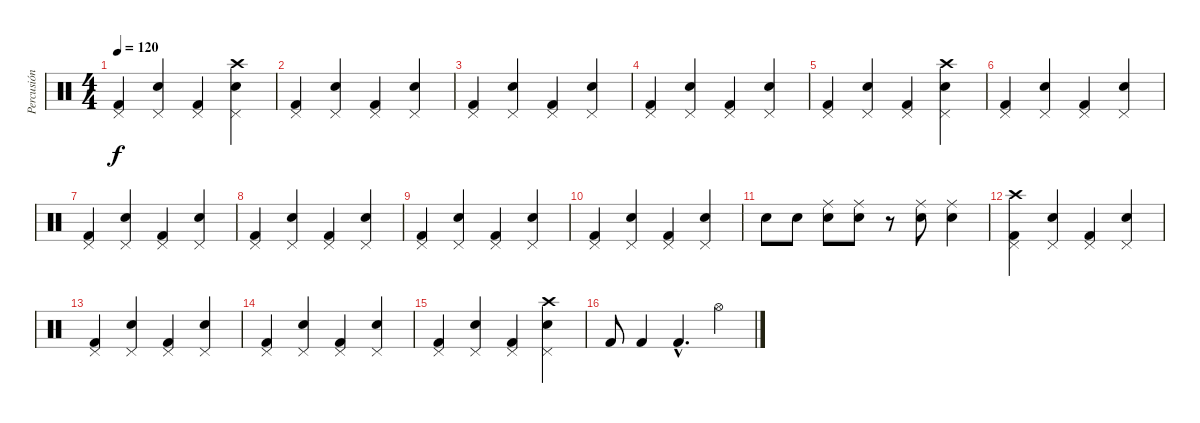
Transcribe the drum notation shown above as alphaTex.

\track ("Percusión" "Percusión") {instrument percussion}
\staff {score}
\articulation defaults
\ts (4 4)
\tempo 120
\clef neutral
\ks c
("Pedal Hi-Hat (hit)" "Kick (hit) 2").4{dy f} ("Pedal Hi-Hat (hit)" "Electric Snare (hit)").4 ("Pedal Hi-Hat (hit)" "Kick (hit) 2").4 ("Crash high (hit)" "Pedal Hi-Hat (hit)" "Electric Snare (hit)").4 |
("Pedal Hi-Hat (hit)" "Kick (hit) 2").4 ("Pedal Hi-Hat (hit)" "Electric Snare (hit)").4 ("Pedal Hi-Hat (hit)" "Kick (hit) 2").4 ("Pedal Hi-Hat (hit)" "Electric Snare (hit)").4 |
("Pedal Hi-Hat (hit)" "Kick (hit) 2").4 ("Pedal Hi-Hat (hit)" "Electric Snare (hit)").4 ("Pedal Hi-Hat (hit)" "Kick (hit) 2").4 ("Pedal Hi-Hat (hit)" "Electric Snare (hit)").4 |
("Pedal Hi-Hat (hit)" "Kick (hit) 2").4 ("Pedal Hi-Hat (hit)" "Electric Snare (hit)").4 ("Pedal Hi-Hat (hit)" "Kick (hit) 2").4 ("Pedal Hi-Hat (hit)" "Electric Snare (hit)").4 |
("Pedal Hi-Hat (hit)" "Kick (hit) 2").4 ("Pedal Hi-Hat (hit)" "Electric Snare (hit)").4 ("Pedal Hi-Hat (hit)" "Kick (hit) 2").4 ("Crash high (hit)" "Pedal Hi-Hat (hit)" "Electric Snare (hit)").4 |
("Pedal Hi-Hat (hit)" "Kick (hit) 2").4 ("Pedal Hi-Hat (hit)" "Electric Snare (hit)").4 ("Pedal Hi-Hat (hit)" "Kick (hit) 2").4 ("Pedal Hi-Hat (hit)" "Electric Snare (hit)").4 |
("Pedal Hi-Hat (hit)" "Kick (hit) 2").4 ("Pedal Hi-Hat (hit)" "Electric Snare (hit)").4 ("Pedal Hi-Hat (hit)" "Kick (hit) 2").4 ("Pedal Hi-Hat (hit)" "Electric Snare (hit)").4 |
("Pedal Hi-Hat (hit)" "Kick (hit) 2").4 ("Pedal Hi-Hat (hit)" "Electric Snare (hit)").4 ("Pedal Hi-Hat (hit)" "Kick (hit) 2").4 ("Pedal Hi-Hat (hit)" "Electric Snare (hit)").4 |
("Pedal Hi-Hat (hit)" "Kick (hit) 2").4 ("Pedal Hi-Hat (hit)" "Electric Snare (hit)").4 ("Pedal Hi-Hat (hit)" "Kick (hit) 2").4 ("Pedal Hi-Hat (hit)" "Electric Snare (hit)").4 |
("Pedal Hi-Hat (hit)" "Kick (hit) 2").4 ("Pedal Hi-Hat (hit)" "Electric Snare (hit)").4 ("Pedal Hi-Hat (hit)" "Kick (hit) 2").4 ("Pedal Hi-Hat (hit)" "Electric Snare (hit)").4 |
"Electric Snare (hit)".8 "Electric Snare (hit)".8 ("Electric Snare (hit)" "Ride (middle)").8 ("Electric Snare (hit)" "Ride (middle)").8 r.8 ("Ride (middle)" "Electric Snare (hit)").8 ("Ride (middle)" "Electric Snare (hit)").4 |
("Crash high (hit)" "Pedal Hi-Hat (hit)" "Kick (hit) 2").4 ("Pedal Hi-Hat (hit)" "Electric Snare (hit)").4 ("Pedal Hi-Hat (hit)" "Kick (hit) 2").4 ("Pedal Hi-Hat (hit)" "Electric Snare (hit)").4 |
("Pedal Hi-Hat (hit)" "Kick (hit) 2").4 ("Pedal Hi-Hat (hit)" "Electric Snare (hit)").4 ("Pedal Hi-Hat (hit)" "Kick (hit) 2").4 ("Pedal Hi-Hat (hit)" "Electric Snare (hit)").4 |
("Pedal Hi-Hat (hit)" "Kick (hit) 2").4 ("Pedal Hi-Hat (hit)" "Electric Snare (hit)").4 ("Pedal Hi-Hat (hit)" "Kick (hit) 2").4 ("Pedal Hi-Hat (hit)" "Electric Snare (hit)").4 |
("Pedal Hi-Hat (hit)" "Kick (hit) 2").4 ("Pedal Hi-Hat (hit)" "Electric Snare (hit)").4 ("Pedal Hi-Hat (hit)" "Kick (hit) 2").4 ("Crash high (hit)" "Pedal Hi-Hat (hit)" "Electric Snare (hit)").4 |
"Kick (hit) 2".8 "Kick (hit) 2".4 "Kick (hit) 2"{hac}.4{d} "Hi-Hat (open)".4
